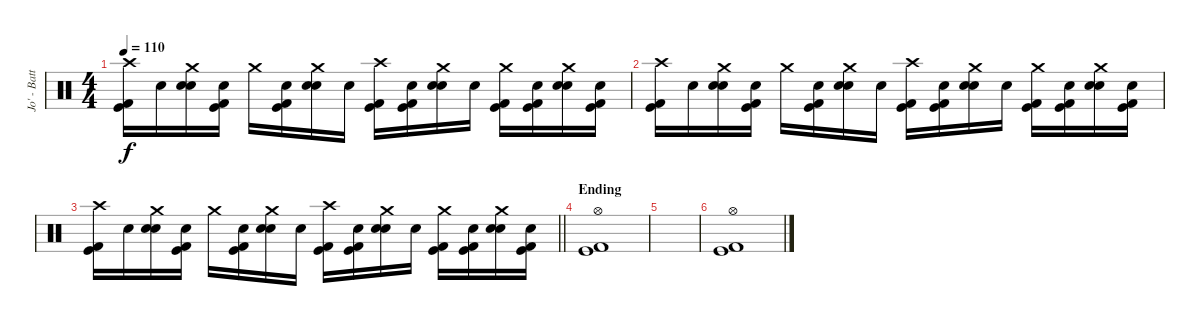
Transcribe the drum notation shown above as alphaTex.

\track ("Jo' - Batterie" "Jo' - Batt") {instrument percussion}
\staff {score}
\articulation defaults
\ts (4 4)
\tempo 110
\clef neutral
\ks c
("Crash high (hit)" "Kick (hit)" "Kick (hit) 2").16{dy f} "Snare (hit)".16 ("Crash medium (hit)" "Electric Snare (hit)" "Snare (hit) 2").16 ("Snare (hit)" "Kick (hit)" "Kick (hit) 2").16 "Crash medium (hit)".16 ("Snare (hit)" "Kick (hit)" "Kick (hit) 2").16 ("Crash medium (hit)" "Electric Snare (hit)" "Snare (hit) 2").16 "Snare (hit)".16 ("Crash high (hit)" "Kick (hit)" "Kick (hit) 2").16 ("Snare (hit)" "Kick (hit)" "Kick (hit) 2").16 ("Crash medium (hit)" "Electric Snare (hit)" "Snare (hit) 2").16 "Snare (hit)".16 ("Crash medium (hit)" "Kick (hit)" "Kick (hit) 2").16 ("Snare (hit)" "Kick (hit)" "Kick (hit) 2").16 ("Crash medium (hit)" "Electric Snare (hit)" "Snare (hit) 2").16 ("Snare (hit)" "Kick (hit)" "Kick (hit) 2").16 |
("Crash high (hit)" "Kick (hit)" "Kick (hit) 2").16 "Snare (hit)".16 ("Crash medium (hit)" "Electric Snare (hit)" "Snare (hit) 2").16 ("Snare (hit)" "Kick (hit)" "Kick (hit) 2").16 "Crash medium (hit)".16 ("Snare (hit)" "Kick (hit)" "Kick (hit) 2").16 ("Crash medium (hit)" "Electric Snare (hit)" "Snare (hit) 2").16 "Snare (hit)".16 ("Crash high (hit)" "Kick (hit)" "Kick (hit) 2").16 ("Snare (hit)" "Kick (hit)" "Kick (hit) 2").16 ("Crash medium (hit)" "Electric Snare (hit)" "Snare (hit) 2").16 "Snare (hit)".16 ("Crash medium (hit)" "Kick (hit)" "Kick (hit) 2").16 ("Snare (hit)" "Kick (hit)" "Kick (hit) 2").16 ("Crash medium (hit)" "Electric Snare (hit)" "Snare (hit) 2").16 ("Snare (hit)" "Kick (hit)" "Kick (hit) 2").16 |
\barLineRight lightlight
("Crash high (hit)" "Kick (hit)" "Kick (hit) 2").16 "Snare (hit)".16 ("Crash medium (hit)" "Electric Snare (hit)" "Snare (hit) 2").16 ("Snare (hit)" "Kick (hit)" "Kick (hit) 2").16 "Crash medium (hit)".16 ("Snare (hit)" "Kick (hit)" "Kick (hit) 2").16 ("Crash medium (hit)" "Electric Snare (hit)" "Snare (hit) 2").16 "Snare (hit)".16 ("Crash high (hit)" "Kick (hit)" "Kick (hit) 2").16 ("Snare (hit)" "Kick (hit)" "Kick (hit) 2").16 ("Crash medium (hit)" "Electric Snare (hit)" "Snare (hit) 2").16 "Snare (hit)".16 ("Crash medium (hit)" "Kick (hit)" "Kick (hit) 2").16 ("Snare (hit)" "Kick (hit)" "Kick (hit) 2").16 ("Crash medium (hit)" "Electric Snare (hit)" "Snare (hit) 2").16 ("Snare (hit)" "Kick (hit)" "Kick (hit) 2").16 |
\section ("" "Ending")
("Kick (hit)" "Kick (hit) 2" "Hi-Hat (open)").1 |
|
("Kick (hit)" "Kick (hit) 2" "Hi-Hat (open)").1
